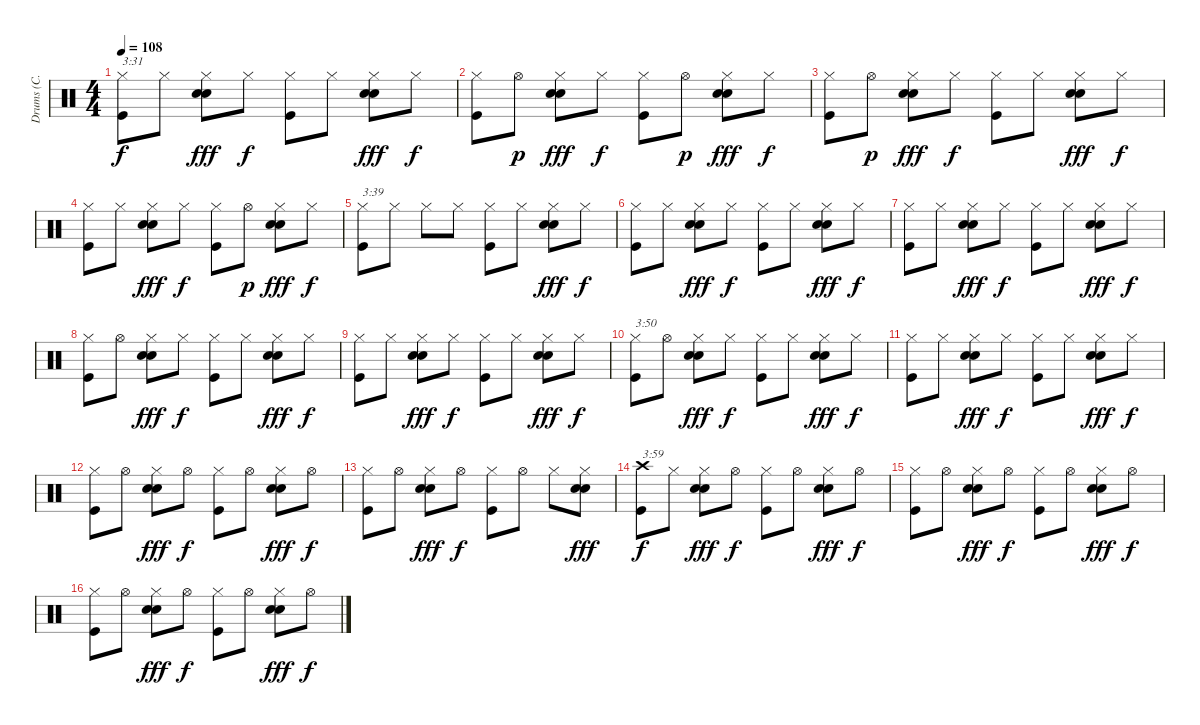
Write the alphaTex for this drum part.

\track ("Drums (C. Watts)" "Drums (C. ") {instrument percussion}
\staff {score}
\articulation defaults
\ts (4 4)
\tempo 108
\clef neutral
\ks c
("Hi-Hat (closed)" "Kick (hit)").8{txt "3:31" dy f} "Hi-Hat (closed)".8 ("Hi-Hat (closed)" "Snare (hit) 2" "Electric Snare (hit)").8{dy fff} "Hi-Hat (closed)".8{dy f} ("Hi-Hat (closed)" "Kick (hit)").8 "Hi-Hat (closed)".8 ("Hi-Hat (closed)" "Snare (hit) 2" "Electric Snare (hit)").8{dy fff} "Hi-Hat (closed)".8{dy f} |
("Hi-Hat (closed)" "Kick (hit)").8 "Hi-Hat (open)".8{dy p} ("Hi-Hat (closed)" "Snare (hit) 2" "Electric Snare (hit)").8{dy fff} "Hi-Hat (closed)".8{dy f} ("Hi-Hat (closed)" "Kick (hit)").8 "Hi-Hat (open)".8{dy p} ("Hi-Hat (closed)" "Snare (hit) 2" "Electric Snare (hit)").8{dy fff} "Hi-Hat (closed)".8{dy f} |
("Hi-Hat (closed)" "Kick (hit)").8 "Hi-Hat (open)".8{dy p} ("Hi-Hat (closed)" "Snare (hit) 2" "Electric Snare (hit)").8{dy fff} "Hi-Hat (closed)".8{dy f} ("Hi-Hat (closed)" "Kick (hit)").8 "Hi-Hat (closed)".8 ("Hi-Hat (closed)" "Snare (hit) 2" "Electric Snare (hit)").8{dy fff} "Hi-Hat (closed)".8{dy f} |
("Hi-Hat (closed)" "Kick (hit)").8 "Hi-Hat (closed)".8 ("Hi-Hat (closed)" "Snare (hit) 2" "Electric Snare (hit)").8{dy fff} "Hi-Hat (closed)".8{dy f} ("Hi-Hat (closed)" "Kick (hit)").8 "Hi-Hat (open)".8{dy p} ("Hi-Hat (closed)" "Snare (hit) 2" "Electric Snare (hit)").8{dy fff} "Hi-Hat (closed)".8{dy f} |
("Hi-Hat (closed)" "Kick (hit)").8{txt "3:39"} "Hi-Hat (closed)".8 "Hi-Hat (closed)".8 "Hi-Hat (closed)".8 ("Hi-Hat (closed)" "Kick (hit)").8 "Hi-Hat (closed)".8 ("Hi-Hat (closed)" "Snare (hit) 2" "Electric Snare (hit)").8{dy fff} "Hi-Hat (closed)".8{dy f} |
("Hi-Hat (closed)" "Kick (hit)").8 "Hi-Hat (closed)".8 ("Hi-Hat (closed)" "Snare (hit) 2" "Electric Snare (hit)").8{dy fff} "Hi-Hat (closed)".8{dy f} ("Hi-Hat (closed)" "Kick (hit)").8 "Hi-Hat (closed)".8 ("Hi-Hat (closed)" "Snare (hit) 2" "Electric Snare (hit)").8{dy fff} "Hi-Hat (closed)".8{dy f} |
("Hi-Hat (closed)" "Kick (hit)").8 "Hi-Hat (closed)".8 ("Hi-Hat (closed)" "Snare (hit) 2" "Electric Snare (hit)").8{dy fff} "Hi-Hat (closed)".8{dy f} ("Hi-Hat (closed)" "Kick (hit)").8 "Hi-Hat (closed)".8 ("Hi-Hat (closed)" "Snare (hit) 2" "Electric Snare (hit)").8{dy fff} "Hi-Hat (closed)".8{dy f} |
("Hi-Hat (closed)" "Kick (hit)").8 "Hi-Hat (open)".8 ("Hi-Hat (closed)" "Snare (hit) 2" "Electric Snare (hit)").8{dy fff} "Hi-Hat (closed)".8{dy f} ("Hi-Hat (closed)" "Kick (hit)").8 "Hi-Hat (closed)".8 ("Hi-Hat (closed)" "Snare (hit) 2" "Electric Snare (hit)").8{dy fff} "Hi-Hat (closed)".8{dy f} |
("Hi-Hat (closed)" "Kick (hit)").8 "Hi-Hat (closed)".8 ("Hi-Hat (closed)" "Snare (hit) 2" "Electric Snare (hit)").8{dy fff} "Hi-Hat (closed)".8{dy f} ("Hi-Hat (closed)" "Kick (hit)").8 "Hi-Hat (closed)".8 ("Hi-Hat (closed)" "Snare (hit) 2" "Electric Snare (hit)").8{dy fff} "Hi-Hat (closed)".8{dy f} |
("Hi-Hat (closed)" "Kick (hit)").8{txt "3:50"} "Hi-Hat (open)".8 ("Hi-Hat (closed)" "Snare (hit) 2" "Electric Snare (hit)").8{dy fff} "Hi-Hat (closed)".8{dy f} ("Hi-Hat (closed)" "Kick (hit)").8 "Hi-Hat (closed)".8 ("Hi-Hat (closed)" "Snare (hit) 2" "Electric Snare (hit)").8{dy fff} "Hi-Hat (closed)".8{dy f} |
("Hi-Hat (closed)" "Kick (hit)").8 "Hi-Hat (closed)".8 ("Hi-Hat (closed)" "Snare (hit) 2" "Electric Snare (hit)").8{dy fff} "Hi-Hat (closed)".8{dy f} ("Hi-Hat (closed)" "Kick (hit)").8 "Hi-Hat (closed)".8 ("Hi-Hat (closed)" "Snare (hit) 2" "Electric Snare (hit)").8{dy fff} "Hi-Hat (closed)".8{dy f} |
("Hi-Hat (closed)" "Kick (hit)").8 "Hi-Hat (open)".8 ("Hi-Hat (closed)" "Snare (hit) 2" "Electric Snare (hit)").8{dy fff} "Hi-Hat (open)".8{dy f} ("Hi-Hat (closed)" "Kick (hit)").8 "Hi-Hat (open)".8 ("Hi-Hat (closed)" "Snare (hit) 2" "Electric Snare (hit)").8{dy fff} "Hi-Hat (open)".8{dy f} |
("Hi-Hat (closed)" "Kick (hit)").8 "Hi-Hat (open)".8 ("Hi-Hat (closed)" "Snare (hit) 2" "Electric Snare (hit)").8{dy fff} "Hi-Hat (open)".8{dy f} ("Hi-Hat (closed)" "Kick (hit)").8 "Hi-Hat (open)".8 "Hi-Hat (closed)".8 ("Hi-Hat (closed)" "Snare (hit) 2" "Electric Snare (hit)").8{dy fff} |
("Crash high (hit)" "Kick (hit)").8{txt "3:59" dy f} "Hi-Hat (closed)".8 ("Hi-Hat (closed)" "Snare (hit) 2" "Electric Snare (hit)").8{dy fff} "Hi-Hat (open)".8{dy f} ("Hi-Hat (closed)" "Kick (hit)").8 "Hi-Hat (open)".8 ("Hi-Hat (closed)" "Snare (hit) 2" "Electric Snare (hit)").8{dy fff} "Hi-Hat (open)".8{dy f} |
("Hi-Hat (closed)" "Kick (hit)").8 "Hi-Hat (open)".8 ("Hi-Hat (closed)" "Snare (hit) 2" "Electric Snare (hit)").8{dy fff} "Hi-Hat (open)".8{dy f} ("Hi-Hat (closed)" "Kick (hit)").8 "Hi-Hat (open)".8 ("Hi-Hat (closed)" "Snare (hit) 2" "Electric Snare (hit)").8{dy fff} "Hi-Hat (open)".8{dy f} |
("Hi-Hat (closed)" "Kick (hit)").8 "Hi-Hat (open)".8 ("Hi-Hat (closed)" "Snare (hit) 2" "Electric Snare (hit)").8{dy fff} "Hi-Hat (open)".8{dy f} ("Hi-Hat (closed)" "Kick (hit)").8 "Hi-Hat (open)".8 ("Hi-Hat (closed)" "Snare (hit) 2" "Electric Snare (hit)").8{dy fff} "Hi-Hat (open)".8{dy f}
